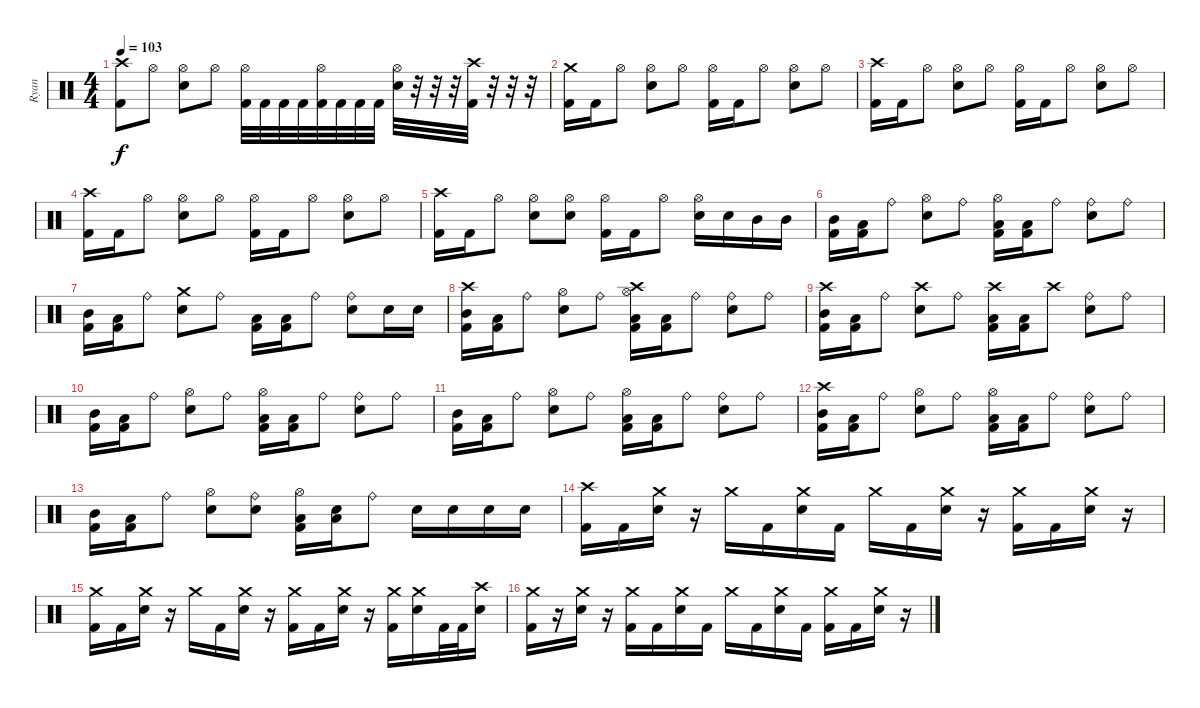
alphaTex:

\track ("Ryan" "Ryan") {instrument percussion}
\staff {score}
\articulation defaults
\ts (4 4)
\tempo 103
\clef neutral
\ks c
("Crash high (hit)" "Kick (hit) 2").8{dy f} "Hi-Hat (open)".8 ("Hi-Hat (open)" "Electric Snare (hit)").8 "Hi-Hat (open)".8 ("Hi-Hat (open)" "Kick (hit) 2").32 "Kick (hit) 2".32 "Kick (hit) 2".32 "Kick (hit) 2".32 ("Hi-Hat (open)" "Kick (hit) 2").32 "Kick (hit) 2".32 "Kick (hit) 2".32 "Kick (hit) 2".32 ("Hi-Hat (open)" "Electric Snare (hit)").32 r.32 r.32 r.32 ("Crash high (hit)" "Kick (hit) 2").32 r.32 r.32 r.32 |
("Crash medium (hit)" "Kick (hit) 2").16 "Kick (hit) 2".16 "Hi-Hat (open)".8 ("Hi-Hat (open)" "Electric Snare (hit)").8 "Hi-Hat (open)".8 ("Hi-Hat (open)" "Kick (hit) 2").16 "Kick (hit) 2".16 "Hi-Hat (open)".8 ("Hi-Hat (open)" "Electric Snare (hit)").8 "Hi-Hat (open)".8 |
("Crash high (hit)" "Kick (hit) 2").16 "Kick (hit) 2".16 "Hi-Hat (open)".8 ("Hi-Hat (open)" "Electric Snare (hit)").8 "Hi-Hat (open)".8 ("Hi-Hat (open)" "Kick (hit) 2").16 "Kick (hit) 2".16 "Hi-Hat (open)".8 ("Hi-Hat (open)" "Electric Snare (hit)").8 "Hi-Hat (open)".8 |
("Crash high (hit)" "Kick (hit) 2").16 "Kick (hit) 2".16 "Hi-Hat (open)".8 ("Hi-Hat (open)" "Electric Snare (hit)").8 "Hi-Hat (open)".8 ("Hi-Hat (open)" "Kick (hit) 2").16 "Kick (hit) 2".16 "Hi-Hat (open)".8 ("Hi-Hat (open)" "Electric Snare (hit)").8 "Hi-Hat (open)".8 |
("Crash high (hit)" "Kick (hit) 2").16 "Kick (hit) 2".16 "Hi-Hat (open)".8 ("Hi-Hat (open)" "Electric Snare (hit)").8 ("Hi-Hat (open)" "Electric Snare (hit)").8 ("Hi-Hat (open)" "Kick (hit) 2").16 "Kick (hit) 2".16 "Hi-Hat (open)".8 ("Hi-Hat (open)" "Electric Snare (hit)").16 "Electric Snare (hit)".16 "Mid Tom (hit)".16 "Mid Tom (hit)".16 |
("Mid Tom (hit)" "Kick (hit) 2").16 ("Low Tom (hit)" "Kick (hit) 2").16 "Ride (bell)".8 ("Hi-Hat (open)" "Electric Snare (hit)").8 "Ride (bell)".8 ("Hi-Hat (open)" "Low Tom (hit)" "Kick (hit) 2").16 ("Low Tom (hit)" "Kick (hit) 2").16 "Ride (bell)".8 ("Ride (bell)" "Electric Snare (hit)").8 "Ride (bell)".8 |
("Mid Tom (hit)" "Kick (hit) 2").16 ("Low Tom (hit)" "Kick (hit) 2").16 "Ride (bell)".8 ("Crash medium (hit)" "Electric Snare (hit)").8 "Ride (bell)".8 ("Low Tom (hit)" "Kick (hit) 2").16 ("Low Tom (hit)" "Kick (hit) 2").16 "Ride (bell)".8 ("Ride (bell)" "Electric Snare (hit)").8 "Electric Snare (hit)".16 "Electric Snare (hit)".16 |
("Crash high (hit)" "Mid Tom (hit)" "Kick (hit) 2").16 ("Low Tom (hit)" "Kick (hit) 2").16 "Ride (bell)".8 ("Hi-Hat (open)" "Electric Snare (hit)").8 "Ride (bell)".8 ("Crash high (hit)" "Hi-Hat (open)" "Low Tom (hit)" "Kick (hit) 2").16 ("Low Tom (hit)" "Kick (hit) 2").16 "Ride (bell)".8 ("Ride (bell)" "Electric Snare (hit)").8 "Ride (bell)".8 |
("Crash high (hit)" "Mid Tom (hit)" "Kick (hit) 2").16 ("Low Tom (hit)" "Kick (hit) 2").16 "Ride (bell)".8 ("Crash high (hit)" "Electric Snare (hit)").8 "Ride (bell)".8 ("Crash high (hit)" "Low Tom (hit)" "Kick (hit) 2").16 ("Low Tom (hit)" "Kick (hit) 2").16 "Crash high (hit)".8 ("Ride (bell)" "Electric Snare (hit)").8 "Ride (bell)".8 |
("Mid Tom (hit)" "Kick (hit) 2").16 ("Low Tom (hit)" "Kick (hit) 2").16 "Ride (bell)".8 ("Hi-Hat (open)" "Electric Snare (hit)").8 "Ride (bell)".8 ("Hi-Hat (open)" "Low Tom (hit)" "Kick (hit) 2").16 ("Low Tom (hit)" "Kick (hit) 2").16 "Ride (bell)".8 ("Ride (bell)" "Electric Snare (hit)").8 "Ride (bell)".8 |
("Mid Tom (hit)" "Kick (hit) 2").16 ("Low Tom (hit)" "Kick (hit) 2").16 "Ride (bell)".8 ("Hi-Hat (open)" "Electric Snare (hit)").8 "Ride (bell)".8 ("Hi-Hat (open)" "Low Tom (hit)" "Kick (hit) 2").16 ("Low Tom (hit)" "Kick (hit) 2").16 "Ride (bell)".8 ("Ride (bell)" "Electric Snare (hit)").8 "Ride (bell)".8 |
("Crash high (hit)" "Mid Tom (hit)" "Kick (hit) 2").16 ("Low Tom (hit)" "Kick (hit) 2").16 "Ride (bell)".8 ("Hi-Hat (open)" "Electric Snare (hit)").8 "Ride (bell)".8 ("Hi-Hat (open)" "Low Tom (hit)" "Kick (hit) 2").16 ("Low Tom (hit)" "Kick (hit) 2").16 "Ride (bell)".8 ("Ride (bell)" "Electric Snare (hit)").8 "Ride (bell)".8 |
("Mid Tom (hit)" "Kick (hit) 2").16 ("Low Tom (hit)" "Kick (hit) 2").16 "Ride (bell)".8 ("Hi-Hat (open)" "Electric Snare (hit)").8 ("Ride (bell)" "Electric Snare (hit)").8 ("Hi-Hat (open)" "Low Tom (hit)" "Kick (hit) 2").16 ("Low Tom (hit)" "Electric Snare (hit)").16 "Ride (bell)".8 "Electric Snare (hit)".16 "Electric Snare (hit)".16 "Electric Snare (hit)".16 "Electric Snare (hit)".16 |
("Crash high (hit)" "Kick (hit) 2").16 "Kick (hit) 2".16 ("Crash medium (hit)" "Electric Snare (hit)").16 r.16 "Crash medium (hit)".16 "Kick (hit) 2".16 ("Crash medium (hit)" "Electric Snare (hit)").16 "Kick (hit) 2".16 "Crash medium (hit)".16 "Kick (hit) 2".16 ("Crash medium (hit)" "Electric Snare (hit)").16 r.16 ("Crash medium (hit)" "Kick (hit) 2").16 "Kick (hit) 2".16 ("Crash medium (hit)" "Electric Snare (hit)").16 r.16 |
("Crash medium (hit)" "Kick (hit) 2").16 "Kick (hit) 2".16 ("Crash medium (hit)" "Electric Snare (hit)").16 r.16 "Crash medium (hit)".16 "Kick (hit) 2".16 ("Crash medium (hit)" "Electric Snare (hit)").16 r.16 ("Crash medium (hit)" "Kick (hit) 2").16 "Kick (hit) 2".16 ("Crash medium (hit)" "Electric Snare (hit)").16 r.16 ("Crash medium (hit)" "Kick (hit) 2").16 ("Crash medium (hit)" "Electric Snare (hit)").16 "Kick (hit) 2".32 "Kick (hit) 2".32 ("Crash high (hit)" "Electric Snare (hit)").16 |
("Crash medium (hit)" "Kick (hit) 2").16 r.16 ("Crash medium (hit)" "Electric Snare (hit)").16 r.16 ("Crash medium (hit)" "Kick (hit) 2").16 "Kick (hit) 2".16 ("Crash medium (hit)" "Electric Snare (hit)").16 "Kick (hit) 2".16 "Crash medium (hit)".16 "Kick (hit) 2".16 ("Crash medium (hit)" "Electric Snare (hit)").16 "Kick (hit) 2".16 ("Crash medium (hit)" "Kick (hit) 2").16 "Kick (hit) 2".16 ("Crash medium (hit)" "Electric Snare (hit)").16 r.16
